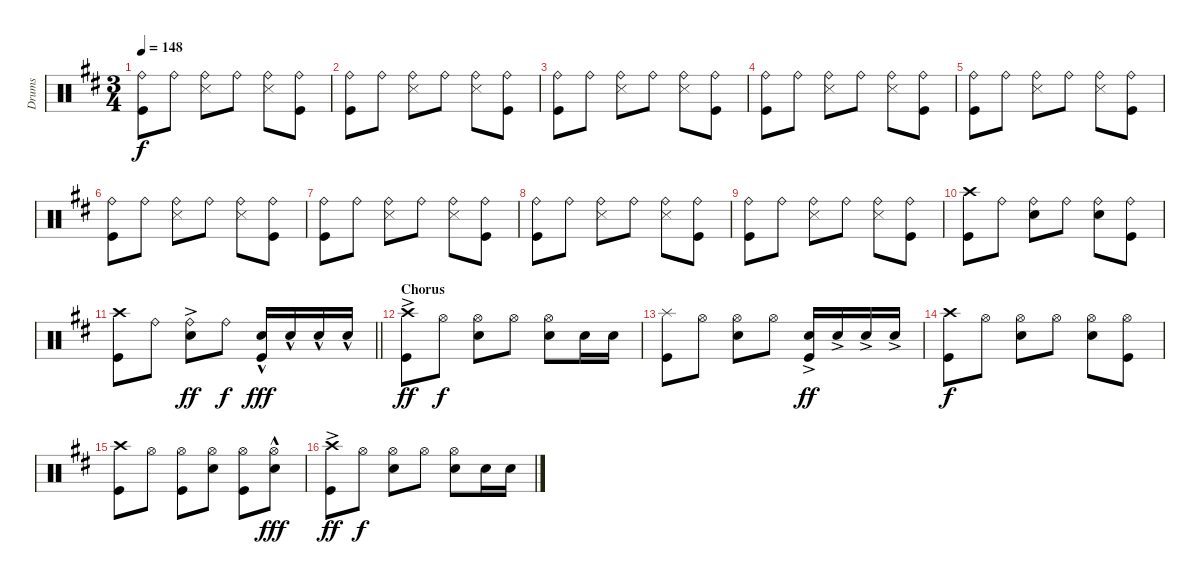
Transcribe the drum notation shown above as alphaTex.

\track ("Drums" "Drums") {instrument percussion}
\staff {score}
\articulation defaults
\ts (3 4)
\tempo 148
\clef neutral
\ks bminor
("Ride (bell)" "Kick (hit)").8{dy f} "Ride (bell)".8 ("Ride (bell)" "Snare (side stick) 3").8 "Ride (bell)".8 ("Ride (bell)" "Snare (side stick) 3").8 ("Ride (bell)" "Kick (hit)").8 |
("Ride (bell)" "Kick (hit)").8 "Ride (bell)".8 ("Ride (bell)" "Snare (side stick) 3").8 "Ride (bell)".8 ("Ride (bell)" "Snare (side stick) 3").8 ("Ride (bell)" "Kick (hit)").8 |
("Ride (bell)" "Kick (hit)").8 "Ride (bell)".8 ("Ride (bell)" "Snare (side stick) 3").8 "Ride (bell)".8 ("Ride (bell)" "Snare (side stick) 3").8 ("Ride (bell)" "Kick (hit)").8 |
("Ride (bell)" "Kick (hit)").8 "Ride (bell)".8 ("Ride (bell)" "Snare (side stick) 3").8 "Ride (bell)".8 ("Ride (bell)" "Snare (side stick) 3").8 ("Ride (bell)" "Kick (hit)").8 |
("Ride (bell)" "Kick (hit)").8 "Ride (bell)".8 ("Ride (bell)" "Snare (side stick) 3").8 "Ride (bell)".8 ("Ride (bell)" "Snare (side stick) 3").8 ("Ride (bell)" "Kick (hit)").8 |
("Ride (bell)" "Kick (hit)").8 "Ride (bell)".8 ("Ride (bell)" "Snare (side stick) 3").8 "Ride (bell)".8 ("Ride (bell)" "Snare (side stick) 3").8 ("Ride (bell)" "Kick (hit)").8 |
("Ride (bell)" "Kick (hit)").8 "Ride (bell)".8 ("Ride (bell)" "Snare (side stick) 3").8 "Ride (bell)".8 ("Ride (bell)" "Snare (side stick) 3").8 ("Ride (bell)" "Kick (hit)").8 |
("Ride (bell)" "Kick (hit)").8 "Ride (bell)".8 ("Ride (bell)" "Snare (side stick) 3").8 "Ride (bell)".8 ("Ride (bell)" "Snare (side stick) 3").8 ("Ride (bell)" "Kick (hit)").8 |
("Ride (bell)" "Kick (hit)").8 "Ride (bell)".8 ("Ride (bell)" "Snare (side stick) 3").8 "Ride (bell)".8 ("Ride (bell)" "Snare (side stick) 3").8 ("Ride (bell)" "Kick (hit)").8 |
("Crash high (hit)" "Kick (hit)").8 "Ride (bell)".8 ("Ride (bell)" "Snare (hit) 2").8 "Ride (bell)".8 ("Ride (bell)" "Snare (hit) 2").8 ("Ride (bell)" "Kick (hit)").8 |
\barLineRight lightlight
("Crash high (hit)" "Kick (hit)").8 "Ride (bell)".8 ("Ride (bell)" "Snare (hit) 2"{ac}).8{dy ff} "Ride (bell)".8{dy f} ("Snare (hit) 2"{hac} "Kick (hit)").16{dy fff} "Snare (hit) 2"{hac}.16 "Snare (hit) 2"{hac}.16 "Snare (hit) 2"{hac}.16 |
\section ("" "Chorus")
("Crash high (hit)"{ac} "Kick (hit)").8{dy ff} "Hi-Hat (open)".8{dy f} ("Hi-Hat (open)" "Snare (hit) 2").8 "Hi-Hat (open)".8 ("Hi-Hat (open)" "Snare (hit) 2").8 "Snare (hit) 2".16 "Snare (hit) 2".16 |
("Splash (hit)" "Kick (hit)").8 "Hi-Hat (open)".8 ("Hi-Hat (open)" "Snare (hit) 2").8 "Hi-Hat (open)".8 ("Snare (hit) 2"{ac} "Kick (hit)").16{dy ff} "Snare (hit) 2"{ac}.16 "Snare (hit) 2"{ac}.16 "Snare (hit) 2"{ac}.16 |
("Crash high (hit)" "Kick (hit)").8{dy f} "Hi-Hat (open)".8 ("Hi-Hat (open)" "Snare (hit) 2").8 "Hi-Hat (open)".8 ("Hi-Hat (open)" "Snare (hit) 2").8 ("Hi-Hat (open)" "Kick (hit)").8 |
("Crash high (hit)" "Kick (hit)").8 "Hi-Hat (open)".8 ("Hi-Hat (open)" "Kick (hit)").8 ("Hi-Hat (open)" "Snare (hit) 2").8 ("Hi-Hat (open)" "Kick (hit)").8 ("Hi-Hat (open)"{hac} "Snare (hit) 2").8{dy fff} |
("Crash high (hit)"{ac} "Kick (hit)").8{dy ff} "Hi-Hat (open)".8{dy f} ("Hi-Hat (open)" "Snare (hit) 2").8 "Hi-Hat (open)".8 ("Hi-Hat (open)" "Snare (hit) 2").8 "Snare (hit) 2".16 "Snare (hit) 2".16
